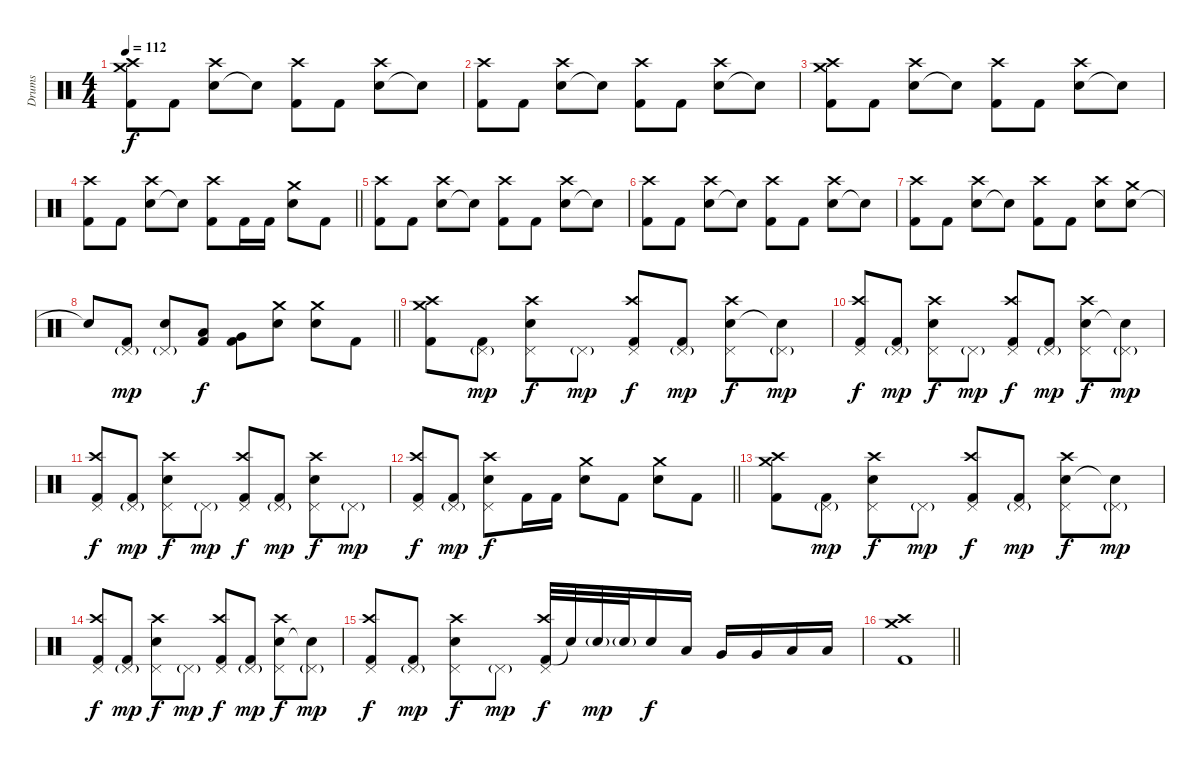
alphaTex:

\track ("Drums" "Drums") {instrument percussion}
\staff {score}
\articulation defaults
\ts (4 4)
\tempo 112
\clef neutral
\ks c
("Kick (hit) 2" "Crash medium (hit)" "Crash high (hit)").8{dy f} "Kick (hit) 2".8 ("Electric Snare (hit)" "Crash high (hit)").8 "Snare (hit)"{t}.8 ("Kick (hit) 2" "Crash high (hit)").8 "Kick (hit) 2".8 ("Electric Snare (hit)" "Crash high (hit)").8 "Snare (hit)"{t}.8 |
("Kick (hit) 2" "Crash high (hit)").8 "Kick (hit) 2".8 ("Electric Snare (hit)" "Crash high (hit)").8 "Snare (hit)"{t}.8 ("Kick (hit) 2" "Crash high (hit)").8 "Kick (hit) 2".8 ("Electric Snare (hit)" "Crash high (hit)").8 "Snare (hit)"{t}.8 |
("Kick (hit) 2" "Crash medium (hit)" "Crash high (hit)").8 "Kick (hit) 2".8 ("Electric Snare (hit)" "Crash high (hit)").8 "Snare (hit)"{t}.8 ("Kick (hit) 2" "Crash high (hit)").8 "Kick (hit) 2".8 ("Electric Snare (hit)" "Crash high (hit)").8 "Snare (hit)"{t}.8 |
\barLineRight lightlight
("Kick (hit) 2" "Crash high (hit)").8 "Kick (hit) 2".8 ("Electric Snare (hit)" "Crash high (hit)").8 "Snare (hit)"{t}.8 ("Kick (hit) 2" "Crash high (hit)").8 "Kick (hit) 2".16 "Kick (hit) 2".16 ("Electric Snare (hit)" "Crash medium (hit)").8 "Kick (hit) 2".8 |
("Kick (hit) 2" "Crash high (hit)").8 "Kick (hit) 2".8 ("Electric Snare (hit)" "Crash high (hit)").8 "Snare (hit)"{t}.8 ("Kick (hit) 2" "Crash high (hit)").8 "Kick (hit) 2".8 ("Electric Snare (hit)" "Crash high (hit)").8 "Snare (hit)"{t}.8 |
("Kick (hit) 2" "Crash high (hit)").8 "Kick (hit) 2".8 ("Electric Snare (hit)" "Crash high (hit)").8 "Snare (hit)"{t}.8 ("Kick (hit) 2" "Crash high (hit)").8 "Kick (hit) 2".8 ("Electric Snare (hit)" "Crash high (hit)").8 "Snare (hit)"{t}.8 |
("Kick (hit) 2" "Crash high (hit)").8 "Kick (hit) 2".8 ("Electric Snare (hit)" "Crash high (hit)").8 "Snare (hit)"{t}.8 ("Kick (hit) 2" "Crash high (hit)").8 "Kick (hit) 2".8 ("Electric Snare (hit)" "Crash high (hit)").8 ("Electric Snare (hit)" "Crash medium (hit)").8 |
\barLineRight lightlight "Electric Snare (hit)"{t}.8
("Kick (hit) 2" "Pedal Hi-Hat (hit)"{g}).8{dy mp} ("Electric Snare (hit)" "Pedal Hi-Hat (hit)"{g}).8 ("Kick (hit) 2" "Low Tom (hit)").8{dy f} ("Kick (hit) 2" "Very Low Tom (hit)").8 ("Electric Snare (hit)" "Crash medium (hit)").8 ("Electric Snare (hit)" "Crash medium (hit)").8 "Kick (hit) 2".8 |
("Kick (hit) 2" "Crash medium (hit)" "Crash high (hit)").8 ("Kick (hit) 2" "Pedal Hi-Hat (hit)"{g}).8{dy mp} ("Electric Snare (hit)" "Pedal Hi-Hat (hit)" "Crash high (hit)").8{dy f} "Pedal Hi-Hat (hit)"{g}.8{dy mp} ("Kick (hit) 2" "Pedal Hi-Hat (hit)" "Crash high (hit)").8{dy f} ("Kick (hit) 2" "Pedal Hi-Hat (hit)"{g}).8{dy mp} ("Electric Snare (hit)" "Pedal Hi-Hat (hit)" "Crash high (hit)").8{dy f} ("Snare (hit)"{t} "Pedal Hi-Hat (hit)"{g}).8{dy mp} |
("Kick (hit) 2" "Pedal Hi-Hat (hit)" "Crash high (hit)").8{dy f} ("Kick (hit) 2" "Pedal Hi-Hat (hit)"{g}).8{dy mp} ("Electric Snare (hit)" "Pedal Hi-Hat (hit)" "Crash high (hit)").8{dy f} "Pedal Hi-Hat (hit)"{g}.8{dy mp} ("Kick (hit) 2" "Pedal Hi-Hat (hit)" "Crash high (hit)").8{dy f} ("Kick (hit) 2" "Pedal Hi-Hat (hit)"{g}).8{dy mp} ("Electric Snare (hit)" "Pedal Hi-Hat (hit)" "Crash high (hit)").8{dy f} ("Snare (hit)"{t} "Pedal Hi-Hat (hit)"{g}).8{dy mp} |
("Kick (hit) 2" "Pedal Hi-Hat (hit)" "Crash high (hit)").8{dy f} ("Kick (hit) 2" "Pedal Hi-Hat (hit)"{g}).8{dy mp} ("Electric Snare (hit)" "Pedal Hi-Hat (hit)" "Crash high (hit)").8{dy f} "Pedal Hi-Hat (hit)"{g}.8{dy mp} ("Kick (hit) 2" "Pedal Hi-Hat (hit)" "Crash high (hit)").8{dy f} ("Kick (hit) 2" "Pedal Hi-Hat (hit)"{g}).8{dy mp} ("Electric Snare (hit)" "Pedal Hi-Hat (hit)" "Crash high (hit)").8{dy f} "Pedal Hi-Hat (hit)"{g}.8{dy mp} |
\barLineRight lightlight
("Kick (hit) 2" "Pedal Hi-Hat (hit)" "Crash high (hit)").8{dy f} ("Kick (hit) 2" "Pedal Hi-Hat (hit)"{g}).8{dy mp} ("Electric Snare (hit)" "Pedal Hi-Hat (hit)" "Crash high (hit)").8{dy f} "Kick (hit) 2".16 "Kick (hit) 2".16 ("Electric Snare (hit)" "Crash medium (hit)").8 "Kick (hit) 2".8 ("Electric Snare (hit)" "Crash medium (hit)").8 "Kick (hit) 2".8 |
("Kick (hit) 2" "Crash medium (hit)" "Crash high (hit)").8 ("Kick (hit) 2" "Pedal Hi-Hat (hit)"{g}).8{dy mp} ("Electric Snare (hit)" "Pedal Hi-Hat (hit)" "Crash high (hit)").8{dy f} "Pedal Hi-Hat (hit)"{g}.8{dy mp} ("Kick (hit) 2" "Pedal Hi-Hat (hit)" "Crash high (hit)").8{dy f} ("Kick (hit) 2" "Pedal Hi-Hat (hit)"{g}).8{dy mp} ("Electric Snare (hit)" "Pedal Hi-Hat (hit)" "Crash high (hit)").8{dy f} ("Snare (hit)"{t} "Pedal Hi-Hat (hit)"{g}).8{dy mp} |
("Kick (hit) 2" "Pedal Hi-Hat (hit)" "Crash high (hit)").8{dy f} ("Kick (hit) 2" "Pedal Hi-Hat (hit)"{g}).8{dy mp} ("Electric Snare (hit)" "Pedal Hi-Hat (hit)" "Crash high (hit)").8{dy f} "Pedal Hi-Hat (hit)"{g}.8{dy mp} ("Kick (hit) 2" "Pedal Hi-Hat (hit)" "Crash high (hit)").8{dy f} ("Kick (hit) 2" "Pedal Hi-Hat (hit)"{g}).8{dy mp} ("Electric Snare (hit)" "Pedal Hi-Hat (hit)" "Crash high (hit)").8{dy f} ("Snare (hit)"{t} "Pedal Hi-Hat (hit)"{g}).8{dy mp} |
("Kick (hit) 2" "Pedal Hi-Hat (hit)" "Crash high (hit)").8{dy f} ("Kick (hit) 2" "Pedal Hi-Hat (hit)"{g}).8{dy mp} ("Electric Snare (hit)" "Pedal Hi-Hat (hit)" "Crash high (hit)").8{dy f} "Pedal Hi-Hat (hit)"{g}.8{dy mp} ("Kick (hit) 2" "Pedal Hi-Hat (hit)" "Crash high (hit)").32{dy f} "Electric Snare (hit)"{t}.32 "Electric Snare (hit)"{g}.32{dy mp} "Electric Snare (hit)"{g}.32 "Electric Snare (hit)".16{dy f} "Low Tom (hit)".16 "Very Low Tom (hit)".16 "Very Low Tom (hit)".16 "Low Floor Tom (hit)".16 "Low Floor Tom (hit)".16 |
\barLineRight lightlight
("Kick (hit) 2" "Crash medium (hit)" "Crash high (hit)").1
